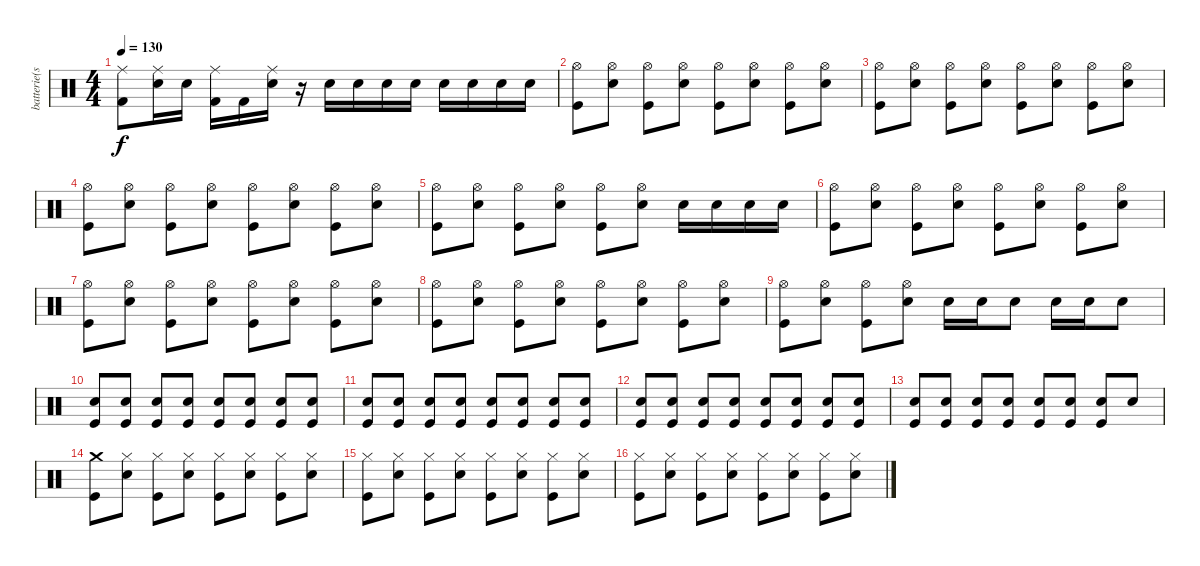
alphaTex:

\track ("batterie(steve)" "batterie(s") {instrument percussion}
\staff {score}
\articulation defaults
\ts (4 4)
\tempo 130
\clef neutral
\ks c
("Ride (middle)" "Kick (hit) 2").8{dy f} ("Ride (middle)" "Snare (hit) 2").16 "Snare (hit) 2".16 ("Ride (middle)" "Kick (hit) 2").16 "Kick (hit) 2".16 ("Ride (middle)" "Snare (hit) 2").16 r.16 "Snare (hit) 2".16 "Snare (hit) 2".16 "Snare (hit) 2".16 "Snare (hit) 2".16 "Snare (hit) 2".16 "Snare (hit) 2".16 "Snare (hit) 2".16 "Snare (hit) 2".16 |
("Hi-Hat (open)" "Kick (hit)").8 ("Hi-Hat (open)" "Snare (hit) 2").8 ("Hi-Hat (open)" "Kick (hit)").8 ("Hi-Hat (open)" "Snare (hit) 2").8 ("Hi-Hat (open)" "Kick (hit)").8 ("Hi-Hat (open)" "Snare (hit) 2").8 ("Hi-Hat (open)" "Kick (hit)").8 ("Hi-Hat (open)" "Snare (hit) 2").8 |
("Hi-Hat (open)" "Kick (hit)").8 ("Hi-Hat (open)" "Snare (hit) 2").8 ("Hi-Hat (open)" "Kick (hit)").8 ("Hi-Hat (open)" "Snare (hit) 2").8 ("Hi-Hat (open)" "Kick (hit)").8 ("Hi-Hat (open)" "Snare (hit) 2").8 ("Hi-Hat (open)" "Kick (hit)").8 ("Hi-Hat (open)" "Snare (hit) 2").8 |
("Hi-Hat (open)" "Kick (hit)").8 ("Hi-Hat (open)" "Snare (hit) 2").8 ("Hi-Hat (open)" "Kick (hit)").8 ("Hi-Hat (open)" "Snare (hit) 2").8 ("Hi-Hat (open)" "Kick (hit)").8 ("Hi-Hat (open)" "Snare (hit) 2").8 ("Hi-Hat (open)" "Kick (hit)").8 ("Hi-Hat (open)" "Snare (hit) 2").8 |
("Hi-Hat (open)" "Kick (hit)").8 ("Hi-Hat (open)" "Snare (hit) 2").8 ("Hi-Hat (open)" "Kick (hit)").8 ("Hi-Hat (open)" "Snare (hit) 2").8 ("Hi-Hat (open)" "Kick (hit)").8 ("Hi-Hat (open)" "Snare (hit) 2").8 "Snare (hit) 2".16 "Snare (hit) 2".16 "Snare (hit) 2".16 "Snare (hit) 2".16 |
("Hi-Hat (open)" "Kick (hit)").8 ("Hi-Hat (open)" "Snare (hit) 2").8 ("Hi-Hat (open)" "Kick (hit)").8 ("Hi-Hat (open)" "Snare (hit) 2").8 ("Hi-Hat (open)" "Kick (hit)").8 ("Hi-Hat (open)" "Snare (hit) 2").8 ("Hi-Hat (open)" "Kick (hit)").8 ("Hi-Hat (open)" "Snare (hit) 2").8 |
("Hi-Hat (open)" "Kick (hit)").8 ("Hi-Hat (open)" "Snare (hit) 2").8 ("Hi-Hat (open)" "Kick (hit)").8 ("Hi-Hat (open)" "Snare (hit) 2").8 ("Hi-Hat (open)" "Kick (hit)").8 ("Hi-Hat (open)" "Snare (hit) 2").8 ("Hi-Hat (open)" "Kick (hit)").8 ("Hi-Hat (open)" "Snare (hit) 2").8 |
("Hi-Hat (open)" "Kick (hit)").8 ("Hi-Hat (open)" "Snare (hit) 2").8 ("Hi-Hat (open)" "Kick (hit)").8 ("Hi-Hat (open)" "Snare (hit) 2").8 ("Hi-Hat (open)" "Kick (hit)").8 ("Hi-Hat (open)" "Snare (hit) 2").8 ("Hi-Hat (open)" "Kick (hit)").8 ("Hi-Hat (open)" "Snare (hit) 2").8 |
("Hi-Hat (open)" "Kick (hit)").8 ("Hi-Hat (open)" "Snare (hit) 2").8 ("Hi-Hat (open)" "Kick (hit)").8 ("Hi-Hat (open)" "Snare (hit) 2").8 "Snare (hit) 2".16 "Snare (hit) 2".16 "Snare (hit) 2".8 "Snare (hit) 2".16 "Snare (hit) 2".16 "Snare (hit) 2".8 |
("Snare (hit) 2" "Kick (hit)").8 ("Snare (hit) 2" "Kick (hit)").8 ("Snare (hit) 2" "Kick (hit)").8 ("Snare (hit) 2" "Kick (hit)").8 ("Snare (hit) 2" "Kick (hit)").8 ("Snare (hit) 2" "Kick (hit)").8 ("Snare (hit) 2" "Kick (hit)").8 ("Snare (hit) 2" "Kick (hit)").8 |
("Snare (hit) 2" "Kick (hit)").8 ("Snare (hit) 2" "Kick (hit)").8 ("Snare (hit) 2" "Kick (hit)").8 ("Snare (hit) 2" "Kick (hit)").8 ("Snare (hit) 2" "Kick (hit)").8 ("Snare (hit) 2" "Kick (hit)").8 ("Snare (hit) 2" "Kick (hit)").8 ("Snare (hit) 2" "Kick (hit)").8 |
("Snare (hit) 2" "Kick (hit)").8 ("Snare (hit) 2" "Kick (hit)").8 ("Snare (hit) 2" "Kick (hit)").8 ("Snare (hit) 2" "Kick (hit)").8 ("Snare (hit) 2" "Kick (hit)").8 ("Snare (hit) 2" "Kick (hit)").8 ("Snare (hit) 2" "Kick (hit)").8 ("Snare (hit) 2" "Kick (hit)").8 |
("Snare (hit) 2" "Kick (hit)").8 ("Snare (hit) 2" "Kick (hit)").8 ("Snare (hit) 2" "Kick (hit)").8 ("Snare (hit) 2" "Kick (hit)").8 ("Snare (hit) 2" "Kick (hit)").8 ("Snare (hit) 2" "Kick (hit)").8 ("Snare (hit) 2" "Kick (hit)").8 "Snare (hit) 2".8 |
("Crash medium (hit)" "Kick (hit)").8 ("Hi-Hat (closed)" "Snare (hit) 2").8 ("Hi-Hat (closed)" "Kick (hit)").8 ("Hi-Hat (closed)" "Snare (hit) 2").8 ("Hi-Hat (closed)" "Kick (hit)").8 ("Hi-Hat (closed)" "Snare (hit) 2").8 ("Hi-Hat (closed)" "Kick (hit)").8 ("Hi-Hat (closed)" "Snare (hit) 2").8 |
("Hi-Hat (closed)" "Kick (hit)").8 ("Hi-Hat (closed)" "Snare (hit) 2").8 ("Hi-Hat (closed)" "Kick (hit)").8 ("Hi-Hat (closed)" "Snare (hit) 2").8 ("Hi-Hat (closed)" "Kick (hit)").8 ("Hi-Hat (closed)" "Snare (hit) 2").8 ("Hi-Hat (closed)" "Kick (hit)").8 ("Hi-Hat (closed)" "Snare (hit) 2").8 |
("Hi-Hat (closed)" "Kick (hit)").8 ("Hi-Hat (closed)" "Snare (hit) 2").8 ("Hi-Hat (closed)" "Kick (hit)").8 ("Hi-Hat (closed)" "Snare (hit) 2").8 ("Hi-Hat (closed)" "Kick (hit)").8 ("Hi-Hat (closed)" "Snare (hit) 2").8 ("Hi-Hat (closed)" "Kick (hit)").8 ("Hi-Hat (closed)" "Snare (hit) 2").8
